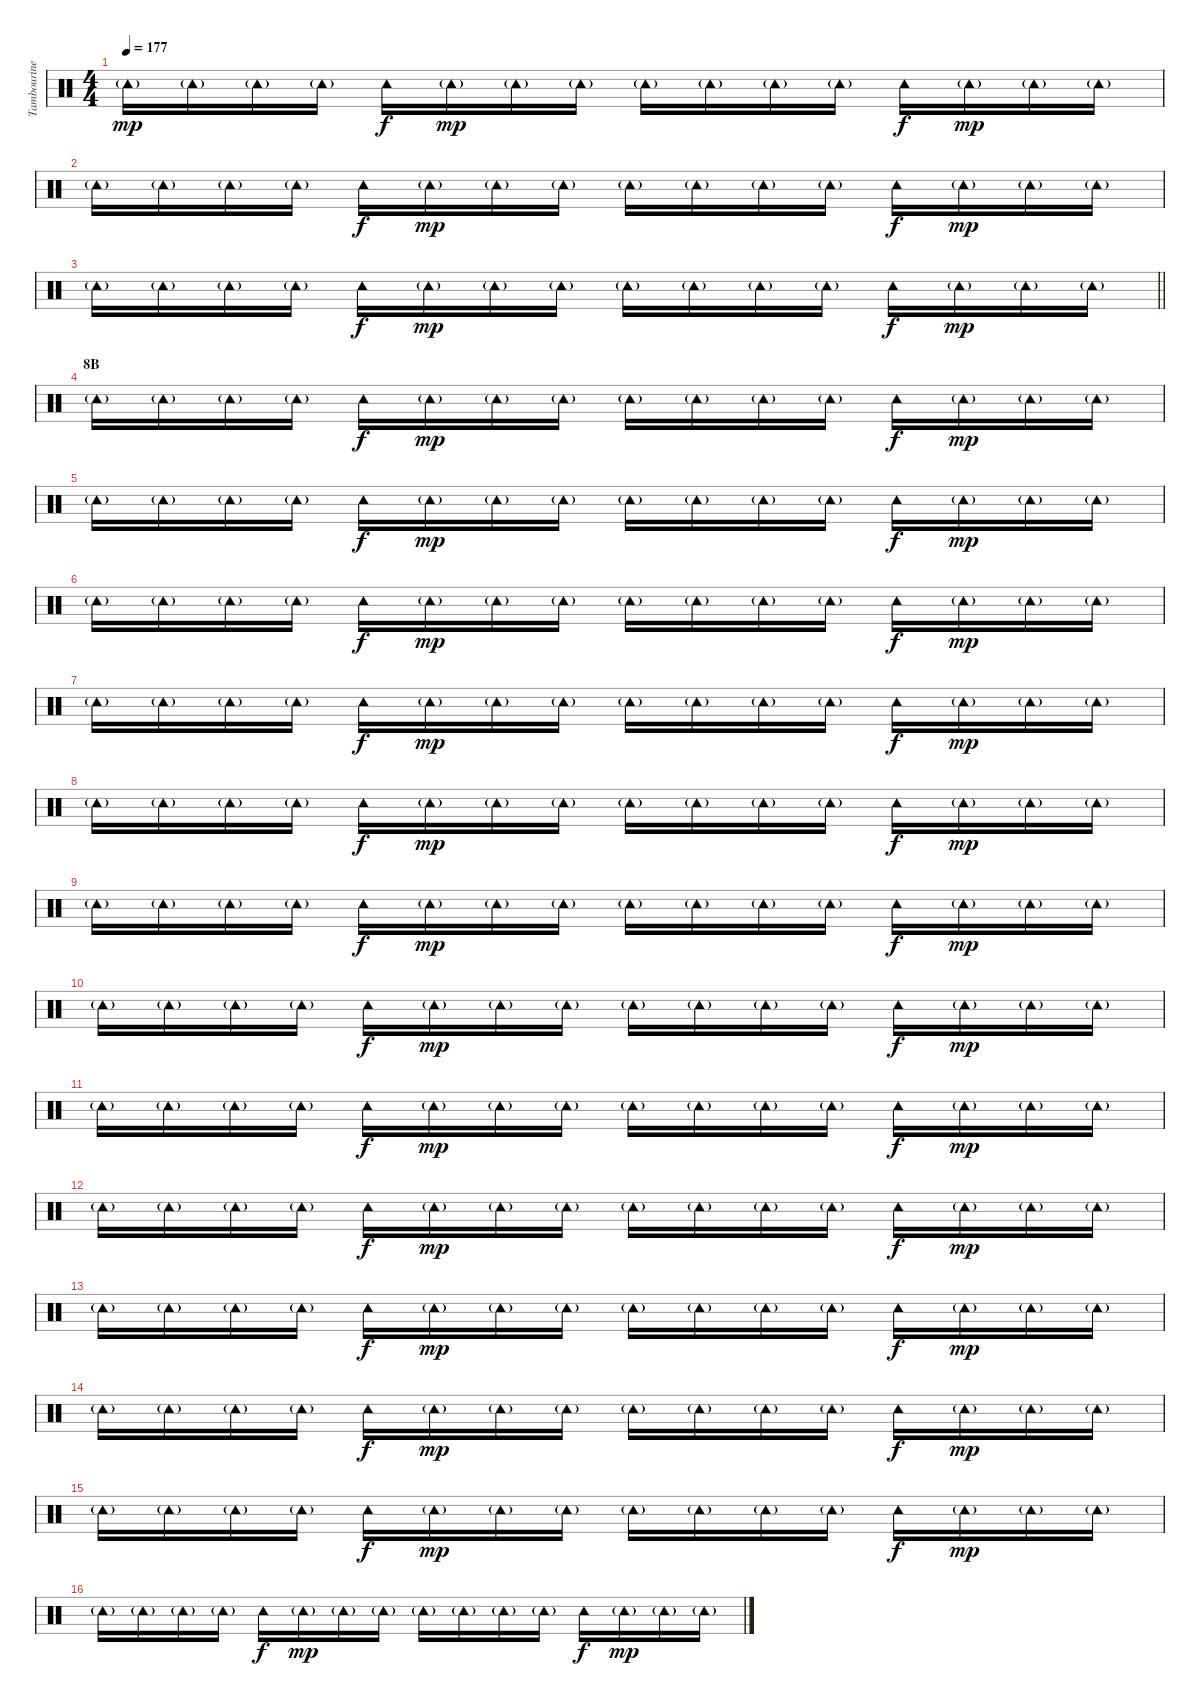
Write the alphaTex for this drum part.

\track ("Tambourine" "Tambourine") {instrument percussion}
\staff {score}
\articulation defaults
\ts (4 4)
\tempo 177
\clef neutral
\ks c "Tambourine (hit)"{g}.16{dy mp} "Tambourine (hit)"{g}.16 "Tambourine (hit)"{g}.16 "Tambourine (hit)"{g}.16 "Tambourine (hit)".16{dy f} "Tambourine (hit)"{g}.16{dy mp} "Tambourine (hit)"{g}.16 "Tambourine (hit)"{g}.16 "Tambourine (hit)"{g}.16 "Tambourine (hit)"{g}.16 "Tambourine (hit)"{g}.16 "Tambourine (hit)"{g}.16 "Tambourine (hit)".16{dy f} "Tambourine (hit)"{g}.16{dy mp} "Tambourine (hit)"{g}.16 "Tambourine (hit)"{g}.16
|
"Tambourine (hit)"{g}.16 "Tambourine (hit)"{g}.16 "Tambourine (hit)"{g}.16 "Tambourine (hit)"{g}.16 "Tambourine (hit)".16{dy f} "Tambourine (hit)"{g}.16{dy mp} "Tambourine (hit)"{g}.16 "Tambourine (hit)"{g}.16 "Tambourine (hit)"{g}.16 "Tambourine (hit)"{g}.16 "Tambourine (hit)"{g}.16 "Tambourine (hit)"{g}.16 "Tambourine (hit)".16{dy f} "Tambourine (hit)"{g}.16{dy mp} "Tambourine (hit)"{g}.16 "Tambourine (hit)"{g}.16 |
\barLineRight lightlight "Tambourine (hit)"{g}.16 "Tambourine (hit)"{g}.16 "Tambourine (hit)"{g}.16 "Tambourine (hit)"{g}.16 "Tambourine (hit)".16{dy f} "Tambourine (hit)"{g}.16{dy mp} "Tambourine (hit)"{g}.16 "Tambourine (hit)"{g}.16 "Tambourine (hit)"{g}.16 "Tambourine (hit)"{g}.16 "Tambourine (hit)"{g}.16 "Tambourine (hit)"{g}.16 "Tambourine (hit)".16{dy f} "Tambourine (hit)"{g}.16{dy mp} "Tambourine (hit)"{g}.16 "Tambourine (hit)"{g}.16
|
\section ("" "8B")
"Tambourine (hit)"{g}.16 "Tambourine (hit)"{g}.16 "Tambourine (hit)"{g}.16 "Tambourine (hit)"{g}.16 "Tambourine (hit)".16{dy f} "Tambourine (hit)"{g}.16{dy mp} "Tambourine (hit)"{g}.16 "Tambourine (hit)"{g}.16 "Tambourine (hit)"{g}.16 "Tambourine (hit)"{g}.16 "Tambourine (hit)"{g}.16 "Tambourine (hit)"{g}.16 "Tambourine (hit)".16{dy f} "Tambourine (hit)"{g}.16{dy mp} "Tambourine (hit)"{g}.16 "Tambourine (hit)"{g}.16 |
"Tambourine (hit)"{g}.16 "Tambourine (hit)"{g}.16 "Tambourine (hit)"{g}.16 "Tambourine (hit)"{g}.16 "Tambourine (hit)".16{dy f} "Tambourine (hit)"{g}.16{dy mp} "Tambourine (hit)"{g}.16 "Tambourine (hit)"{g}.16 "Tambourine (hit)"{g}.16 "Tambourine (hit)"{g}.16 "Tambourine (hit)"{g}.16 "Tambourine (hit)"{g}.16 "Tambourine (hit)".16{dy f} "Tambourine (hit)"{g}.16{dy mp} "Tambourine (hit)"{g}.16 "Tambourine (hit)"{g}.16 |
"Tambourine (hit)"{g}.16 "Tambourine (hit)"{g}.16 "Tambourine (hit)"{g}.16 "Tambourine (hit)"{g}.16 "Tambourine (hit)".16{dy f} "Tambourine (hit)"{g}.16{dy mp} "Tambourine (hit)"{g}.16 "Tambourine (hit)"{g}.16 "Tambourine (hit)"{g}.16 "Tambourine (hit)"{g}.16 "Tambourine (hit)"{g}.16 "Tambourine (hit)"{g}.16 "Tambourine (hit)".16{dy f} "Tambourine (hit)"{g}.16{dy mp} "Tambourine (hit)"{g}.16 "Tambourine (hit)"{g}.16 |
"Tambourine (hit)"{g}.16 "Tambourine (hit)"{g}.16 "Tambourine (hit)"{g}.16 "Tambourine (hit)"{g}.16 "Tambourine (hit)".16{dy f} "Tambourine (hit)"{g}.16{dy mp} "Tambourine (hit)"{g}.16 "Tambourine (hit)"{g}.16 "Tambourine (hit)"{g}.16 "Tambourine (hit)"{g}.16 "Tambourine (hit)"{g}.16 "Tambourine (hit)"{g}.16 "Tambourine (hit)".16{dy f} "Tambourine (hit)"{g}.16{dy mp} "Tambourine (hit)"{g}.16 "Tambourine (hit)"{g}.16 |
"Tambourine (hit)"{g}.16 "Tambourine (hit)"{g}.16 "Tambourine (hit)"{g}.16 "Tambourine (hit)"{g}.16 "Tambourine (hit)".16{dy f} "Tambourine (hit)"{g}.16{dy mp} "Tambourine (hit)"{g}.16 "Tambourine (hit)"{g}.16 "Tambourine (hit)"{g}.16 "Tambourine (hit)"{g}.16 "Tambourine (hit)"{g}.16 "Tambourine (hit)"{g}.16 "Tambourine (hit)".16{dy f} "Tambourine (hit)"{g}.16{dy mp} "Tambourine (hit)"{g}.16 "Tambourine (hit)"{g}.16 |
"Tambourine (hit)"{g}.16 "Tambourine (hit)"{g}.16 "Tambourine (hit)"{g}.16 "Tambourine (hit)"{g}.16 "Tambourine (hit)".16{dy f} "Tambourine (hit)"{g}.16{dy mp} "Tambourine (hit)"{g}.16 "Tambourine (hit)"{g}.16 "Tambourine (hit)"{g}.16 "Tambourine (hit)"{g}.16 "Tambourine (hit)"{g}.16 "Tambourine (hit)"{g}.16 "Tambourine (hit)".16{dy f} "Tambourine (hit)"{g}.16{dy mp} "Tambourine (hit)"{g}.16 "Tambourine (hit)"{g}.16 |
"Tambourine (hit)"{g}.16 "Tambourine (hit)"{g}.16 "Tambourine (hit)"{g}.16 "Tambourine (hit)"{g}.16 "Tambourine (hit)".16{dy f} "Tambourine (hit)"{g}.16{dy mp} "Tambourine (hit)"{g}.16 "Tambourine (hit)"{g}.16 "Tambourine (hit)"{g}.16 "Tambourine (hit)"{g}.16 "Tambourine (hit)"{g}.16 "Tambourine (hit)"{g}.16 "Tambourine (hit)".16{dy f} "Tambourine (hit)"{g}.16{dy mp} "Tambourine (hit)"{g}.16 "Tambourine (hit)"{g}.16 |
"Tambourine (hit)"{g}.16 "Tambourine (hit)"{g}.16 "Tambourine (hit)"{g}.16 "Tambourine (hit)"{g}.16 "Tambourine (hit)".16{dy f} "Tambourine (hit)"{g}.16{dy mp} "Tambourine (hit)"{g}.16 "Tambourine (hit)"{g}.16 "Tambourine (hit)"{g}.16 "Tambourine (hit)"{g}.16 "Tambourine (hit)"{g}.16 "Tambourine (hit)"{g}.16 "Tambourine (hit)".16{dy f} "Tambourine (hit)"{g}.16{dy mp} "Tambourine (hit)"{g}.16 "Tambourine (hit)"{g}.16 |
"Tambourine (hit)"{g}.16 "Tambourine (hit)"{g}.16 "Tambourine (hit)"{g}.16 "Tambourine (hit)"{g}.16 "Tambourine (hit)".16{dy f} "Tambourine (hit)"{g}.16{dy mp} "Tambourine (hit)"{g}.16 "Tambourine (hit)"{g}.16 "Tambourine (hit)"{g}.16 "Tambourine (hit)"{g}.16 "Tambourine (hit)"{g}.16 "Tambourine (hit)"{g}.16 "Tambourine (hit)".16{dy f} "Tambourine (hit)"{g}.16{dy mp} "Tambourine (hit)"{g}.16 "Tambourine (hit)"{g}.16 |
"Tambourine (hit)"{g}.16 "Tambourine (hit)"{g}.16 "Tambourine (hit)"{g}.16 "Tambourine (hit)"{g}.16 "Tambourine (hit)".16{dy f} "Tambourine (hit)"{g}.16{dy mp} "Tambourine (hit)"{g}.16 "Tambourine (hit)"{g}.16 "Tambourine (hit)"{g}.16 "Tambourine (hit)"{g}.16 "Tambourine (hit)"{g}.16 "Tambourine (hit)"{g}.16 "Tambourine (hit)".16{dy f} "Tambourine (hit)"{g}.16{dy mp} "Tambourine (hit)"{g}.16 "Tambourine (hit)"{g}.16 |
"Tambourine (hit)"{g}.16 "Tambourine (hit)"{g}.16 "Tambourine (hit)"{g}.16 "Tambourine (hit)"{g}.16 "Tambourine (hit)".16{dy f} "Tambourine (hit)"{g}.16{dy mp} "Tambourine (hit)"{g}.16 "Tambourine (hit)"{g}.16 "Tambourine (hit)"{g}.16 "Tambourine (hit)"{g}.16 "Tambourine (hit)"{g}.16 "Tambourine (hit)"{g}.16 "Tambourine (hit)".16{dy f} "Tambourine (hit)"{g}.16{dy mp} "Tambourine (hit)"{g}.16 "Tambourine (hit)"{g}.16 |
"Tambourine (hit)"{g}.16 "Tambourine (hit)"{g}.16 "Tambourine (hit)"{g}.16 "Tambourine (hit)"{g}.16 "Tambourine (hit)".16{dy f} "Tambourine (hit)"{g}.16{dy mp} "Tambourine (hit)"{g}.16 "Tambourine (hit)"{g}.16 "Tambourine (hit)"{g}.16 "Tambourine (hit)"{g}.16 "Tambourine (hit)"{g}.16 "Tambourine (hit)"{g}.16 "Tambourine (hit)".16{dy f} "Tambourine (hit)"{g}.16{dy mp} "Tambourine (hit)"{g}.16 "Tambourine (hit)"{g}.16 |
"Tambourine (hit)"{g}.16 "Tambourine (hit)"{g}.16 "Tambourine (hit)"{g}.16 "Tambourine (hit)"{g}.16 "Tambourine (hit)".16{dy f} "Tambourine (hit)"{g}.16{dy mp} "Tambourine (hit)"{g}.16 "Tambourine (hit)"{g}.16 "Tambourine (hit)"{g}.16 "Tambourine (hit)"{g}.16 "Tambourine (hit)"{g}.16 "Tambourine (hit)"{g}.16 "Tambourine (hit)".16{dy f} "Tambourine (hit)"{g}.16{dy mp} "Tambourine (hit)"{g}.16 "Tambourine (hit)"{g}.16
